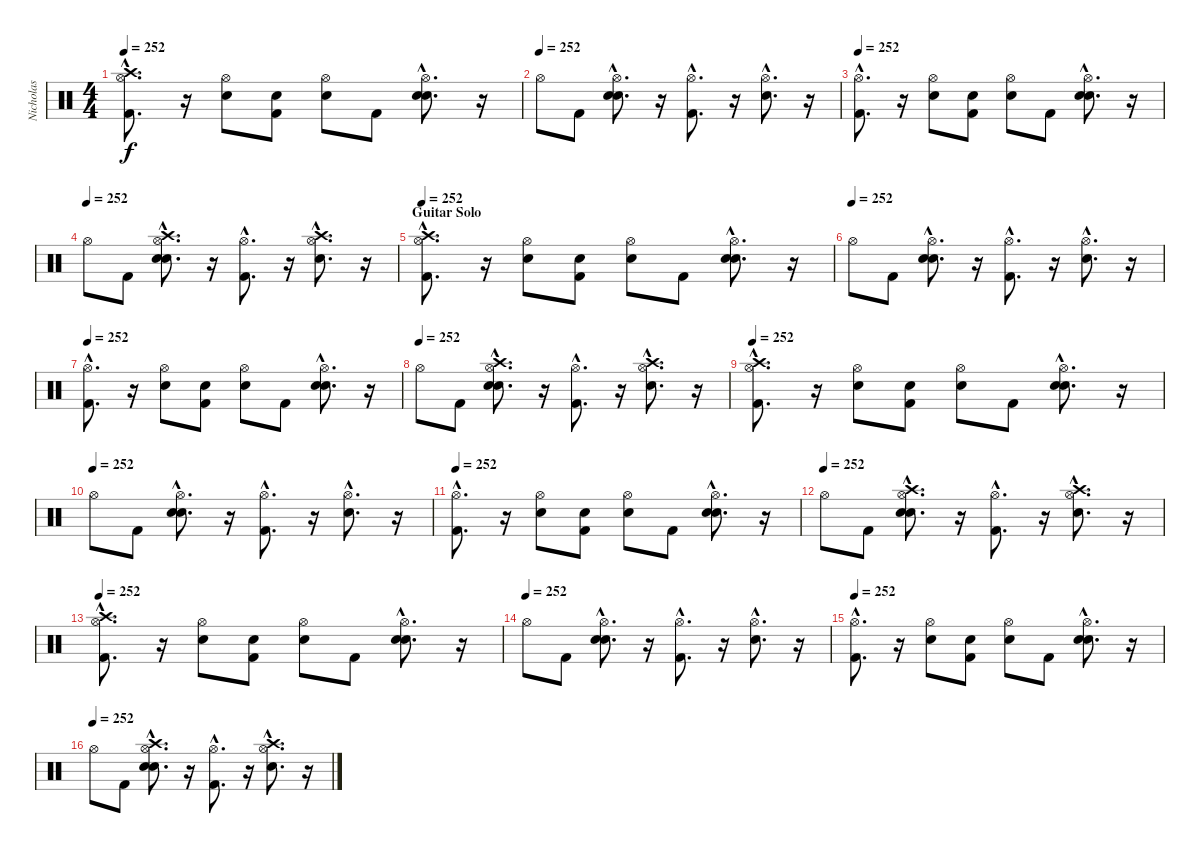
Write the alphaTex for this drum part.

\track ("Nicholas" "Nicholas") {instrument percussion}
\staff {score}
\articulation defaults
\ts (4 4)
\tempo 252
\clef neutral
\ks c
("Kick (hit) 2"{hac} "Hi-Hat (open)"{hac} "Crash high (hit)"{hac}).8{d dy f} r.16 ("Snare (hit) 2" "Hi-Hat (open)").8 ("Snare (hit)" "Kick (hit) 2").8 ("Snare (hit)" "Hi-Hat (open)").8 "Kick (hit) 2".8 ("Snare (hit)"{hac} "Snare (hit) 2"{hac} "Hi-Hat (open)"{hac}).8{d} r.16 |
\tempo (252)
"Hi-Hat (open)".8 "Kick (hit) 2".8 ("Snare (hit)"{hac} "Snare (hit) 2"{hac} "Hi-Hat (open)"{hac}).8{d} r.16 ("Kick (hit) 2"{hac} "Hi-Hat (open)"{hac}).8{d} r.16 ("Snare (hit) 2"{hac} "Hi-Hat (open)"{hac}).8{d} r.16 |
\tempo 252
("Kick (hit) 2"{hac} "Hi-Hat (open)"{hac}).8{d} r.16 ("Snare (hit) 2" "Hi-Hat (open)").8 ("Snare (hit)" "Kick (hit) 2").8 ("Snare (hit)" "Hi-Hat (open)").8 "Kick (hit) 2".8 ("Snare (hit)"{hac} "Snare (hit) 2"{hac} "Hi-Hat (open)"{hac}).8{d} r.16 |
\tempo (252)
"Hi-Hat (open)".8 "Kick (hit) 2".8 ("Snare (hit)"{hac} "Snare (hit) 2"{hac} "Hi-Hat (open)"{hac} "Crash high (hit)"{hac}).8{d} r.16 ("Kick (hit) 2"{hac} "Hi-Hat (open)"{hac}).8{d} r.16 ("Snare (hit) 2"{hac} "Hi-Hat (open)"{hac} "Crash high (hit)"{hac}).8{d} r.16 |
\section ("" "Guitar Solo")
\tempo 252
("Kick (hit) 2"{hac} "Hi-Hat (open)"{hac} "Crash high (hit)"{hac}).8{d} r.16 ("Snare (hit) 2" "Hi-Hat (open)").8 ("Snare (hit)" "Kick (hit) 2").8 ("Snare (hit)" "Hi-Hat (open)").8 "Kick (hit) 2".8 ("Snare (hit)"{hac} "Snare (hit) 2"{hac} "Hi-Hat (open)"{hac}).8{d} r.16 |
\tempo (252)
"Hi-Hat (open)".8 "Kick (hit) 2".8 ("Snare (hit)"{hac} "Snare (hit) 2"{hac} "Hi-Hat (open)"{hac}).8{d} r.16 ("Kick (hit) 2"{hac} "Hi-Hat (open)"{hac}).8{d} r.16 ("Snare (hit) 2"{hac} "Hi-Hat (open)"{hac}).8{d} r.16 |
\tempo 252
("Kick (hit) 2"{hac} "Hi-Hat (open)"{hac}).8{d} r.16 ("Snare (hit) 2" "Hi-Hat (open)").8 ("Snare (hit)" "Kick (hit) 2").8 ("Snare (hit)" "Hi-Hat (open)").8 "Kick (hit) 2".8 ("Snare (hit)"{hac} "Snare (hit) 2"{hac} "Hi-Hat (open)"{hac}).8{d} r.16 |
\tempo (252)
"Hi-Hat (open)".8 "Kick (hit) 2".8 ("Snare (hit)"{hac} "Snare (hit) 2"{hac} "Hi-Hat (open)"{hac} "Crash high (hit)"{hac}).8{d} r.16 ("Kick (hit) 2"{hac} "Hi-Hat (open)"{hac}).8{d} r.16 ("Snare (hit) 2"{hac} "Hi-Hat (open)"{hac} "Crash high (hit)"{hac}).8{d} r.16 |
\tempo 252
("Kick (hit) 2"{hac} "Hi-Hat (open)"{hac} "Crash high (hit)"{hac}).8{d} r.16 ("Snare (hit) 2" "Hi-Hat (open)").8 ("Snare (hit)" "Kick (hit) 2").8 ("Snare (hit)" "Hi-Hat (open)").8 "Kick (hit) 2".8 ("Snare (hit)"{hac} "Snare (hit) 2"{hac} "Hi-Hat (open)"{hac}).8{d} r.16 |
\tempo (252)
"Hi-Hat (open)".8 "Kick (hit) 2".8 ("Snare (hit)"{hac} "Snare (hit) 2"{hac} "Hi-Hat (open)"{hac}).8{d} r.16 ("Kick (hit) 2"{hac} "Hi-Hat (open)"{hac}).8{d} r.16 ("Snare (hit) 2"{hac} "Hi-Hat (open)"{hac}).8{d} r.16 |
\tempo 252
("Kick (hit) 2"{hac} "Hi-Hat (open)"{hac}).8{d} r.16 ("Snare (hit) 2" "Hi-Hat (open)").8 ("Snare (hit)" "Kick (hit) 2").8 ("Snare (hit)" "Hi-Hat (open)").8 "Kick (hit) 2".8 ("Snare (hit)"{hac} "Snare (hit) 2"{hac} "Hi-Hat (open)"{hac}).8{d} r.16 |
\tempo (252)
"Hi-Hat (open)".8 "Kick (hit) 2".8 ("Snare (hit)"{hac} "Snare (hit) 2"{hac} "Hi-Hat (open)"{hac} "Crash high (hit)"{hac}).8{d} r.16 ("Kick (hit) 2"{hac} "Hi-Hat (open)"{hac}).8{d} r.16 ("Snare (hit) 2"{hac} "Hi-Hat (open)"{hac} "Crash high (hit)"{hac}).8{d} r.16 |
\tempo 252
("Kick (hit) 2"{hac} "Hi-Hat (open)"{hac} "Crash high (hit)"{hac}).8{d} r.16 ("Snare (hit) 2" "Hi-Hat (open)").8 ("Snare (hit)" "Kick (hit) 2").8 ("Snare (hit)" "Hi-Hat (open)").8 "Kick (hit) 2".8 ("Snare (hit)"{hac} "Snare (hit) 2"{hac} "Hi-Hat (open)"{hac}).8{d} r.16 |
\tempo (252)
"Hi-Hat (open)".8 "Kick (hit) 2".8 ("Snare (hit)"{hac} "Snare (hit) 2"{hac} "Hi-Hat (open)"{hac}).8{d} r.16 ("Kick (hit) 2"{hac} "Hi-Hat (open)"{hac}).8{d} r.16 ("Snare (hit) 2"{hac} "Hi-Hat (open)"{hac}).8{d} r.16 |
\tempo 252
("Kick (hit) 2"{hac} "Hi-Hat (open)"{hac}).8{d} r.16 ("Snare (hit) 2" "Hi-Hat (open)").8 ("Snare (hit)" "Kick (hit) 2").8 ("Snare (hit)" "Hi-Hat (open)").8 "Kick (hit) 2".8 ("Snare (hit)"{hac} "Snare (hit) 2"{hac} "Hi-Hat (open)"{hac}).8{d} r.16 |
\tempo (252)
"Hi-Hat (open)".8 "Kick (hit) 2".8 ("Snare (hit)"{hac} "Snare (hit) 2"{hac} "Hi-Hat (open)"{hac} "Crash high (hit)"{hac}).8{d} r.16 ("Kick (hit) 2"{hac} "Hi-Hat (open)"{hac}).8{d} r.16 ("Snare (hit) 2"{hac} "Hi-Hat (open)"{hac} "Crash high (hit)"{hac}).8{d} r.16
